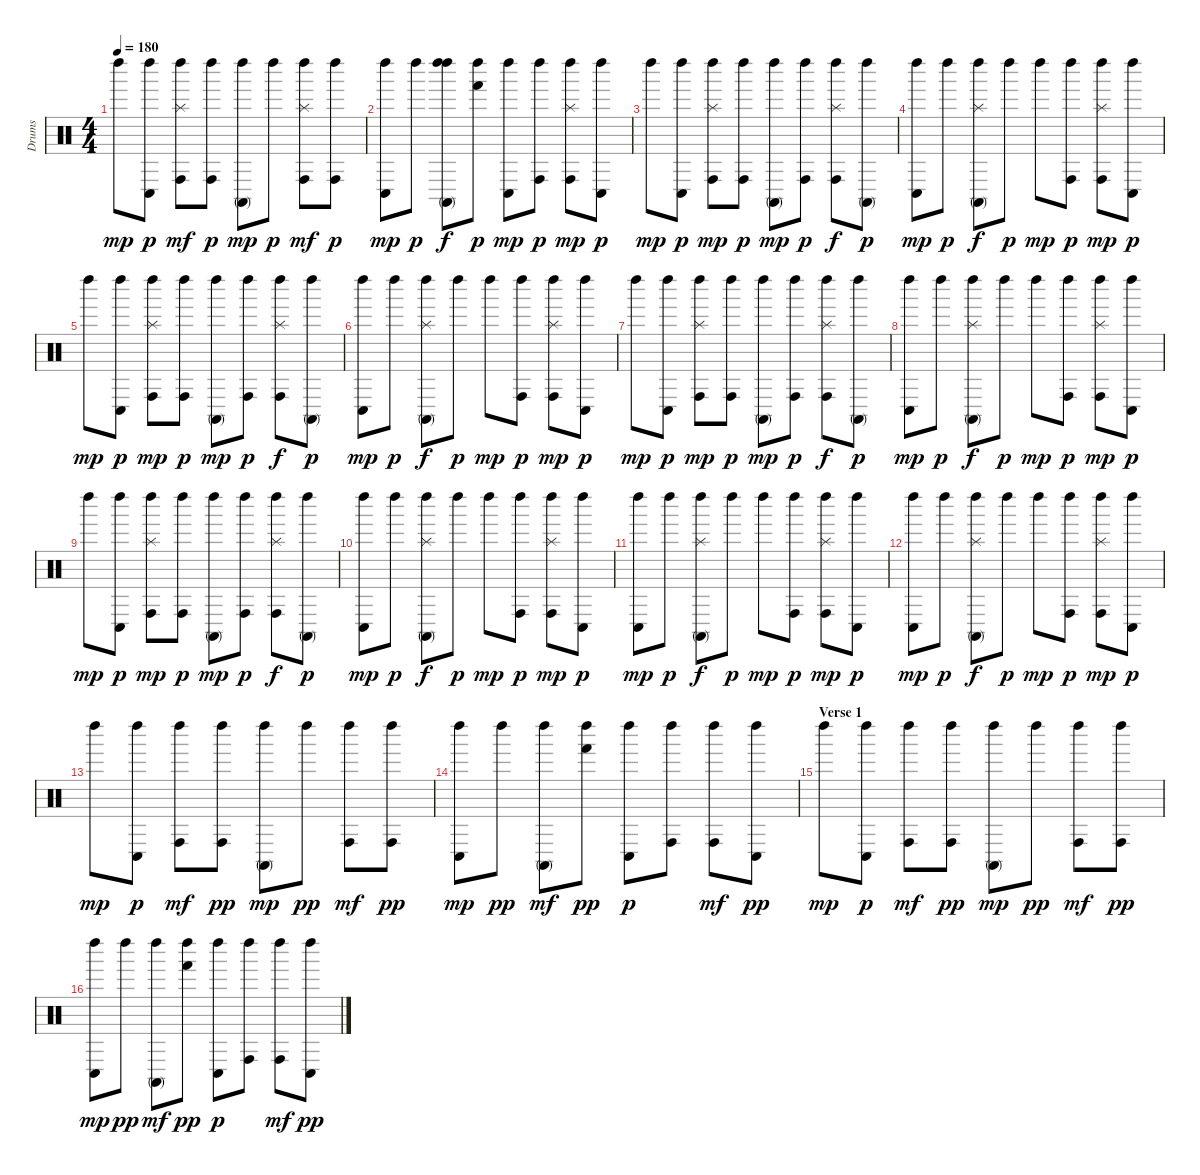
\track ("Drums" "Drums") {instrument percussion}
\staff {score}
\articulation defaults
\ts (4 4)
\tempo 180
\clef neutral
\ks c "Left Maraca (hit)".8{dy mp}
("Left Maraca (hit)" "Conga low (hit)").8{dy p} ("Left Maraca (hit)" "Conga high (hit)" "Splash (hit)").8{dy mf} ("Left Maraca (hit)" "Conga high (hit)").8{dy p} ("Left Maraca (hit)" "Conga high (mute)").8{dy mp} "Left Maraca (hit)".8{dy p} ("Left Maraca (hit)" "Conga high (hit)" "Splash (hit)").8{dy mf} ("Left Maraca (hit)" "Conga high (hit)").8{dy p} |
("Left Maraca (hit)" "Conga low (hit)").8{dy mp} "Left Maraca (hit)".8{dy p} ("Left Maraca (hit)" "Conga high (mute)" "Left Maraca (hit)").8{dy f} ("Left Maraca (hit)" "Hand (hit)").8{dy p} ("Left Maraca (hit)" "Conga low (hit)").8{dy mp} ("Left Maraca (hit)" "Conga high (hit)").8{dy p} ("Left Maraca (hit)" "Conga high (hit)" "Splash (hit)").8{dy mp} ("Left Maraca (hit)" "Conga low (hit)").8{dy p} |
"Left Maraca (hit)".8{dy mp} ("Left Maraca (hit)" "Conga low (hit)").8{dy p} ("Left Maraca (hit)" "Conga high (hit)" "Splash (hit)").8{dy mp} ("Left Maraca (hit)" "Conga high (hit)").8{dy p} ("Left Maraca (hit)" "Conga high (mute)").8{dy mp} ("Left Maraca (hit)" "Conga high (hit)").8{dy p} ("Left Maraca (hit)" "Conga high (hit)" "Splash (hit)").8{dy f} ("Left Maraca (hit)" "Conga high (mute)").8{dy p} |
("Left Maraca (hit)" "Conga low (hit)").8{dy mp} "Left Maraca (hit)".8{dy p} ("Left Maraca (hit)" "Conga high (mute)" "Splash (hit)").8{dy f} "Left Maraca (hit)".8{dy p} "Left Maraca (hit)".8{dy mp} ("Left Maraca (hit)" "Conga high (hit)").8{dy p} ("Left Maraca (hit)" "Conga high (hit)" "Splash (hit)").8{dy mp} ("Left Maraca (hit)" "Conga low (hit)").8{dy p} |
"Left Maraca (hit)".8{dy mp} ("Left Maraca (hit)" "Conga low (hit)").8{dy p} ("Left Maraca (hit)" "Conga high (hit)" "Splash (hit)").8{dy mp} ("Left Maraca (hit)" "Conga high (hit)").8{dy p} ("Left Maraca (hit)" "Conga high (mute)").8{dy mp} ("Left Maraca (hit)" "Conga high (hit)").8{dy p} ("Left Maraca (hit)" "Conga high (hit)" "Splash (hit)").8{dy f} ("Left Maraca (hit)" "Conga high (mute)").8{dy p} |
("Left Maraca (hit)" "Conga low (hit)").8{dy mp} "Left Maraca (hit)".8{dy p} ("Left Maraca (hit)" "Conga high (mute)" "Splash (hit)").8{dy f} "Left Maraca (hit)".8{dy p} "Left Maraca (hit)".8{dy mp} ("Left Maraca (hit)" "Conga high (hit)").8{dy p} ("Left Maraca (hit)" "Conga high (hit)" "Splash (hit)").8{dy mp} ("Left Maraca (hit)" "Conga low (hit)").8{dy p} |
"Left Maraca (hit)".8{dy mp} ("Left Maraca (hit)" "Conga low (hit)").8{dy p} ("Left Maraca (hit)" "Conga high (hit)" "Splash (hit)").8{dy mp} ("Left Maraca (hit)" "Conga high (hit)").8{dy p} ("Left Maraca (hit)" "Conga high (mute)").8{dy mp} ("Left Maraca (hit)" "Conga high (hit)").8{dy p} ("Left Maraca (hit)" "Conga high (hit)" "Splash (hit)").8{dy f} ("Left Maraca (hit)" "Conga high (mute)").8{dy p} |
("Left Maraca (hit)" "Conga low (hit)").8{dy mp} "Left Maraca (hit)".8{dy p} ("Left Maraca (hit)" "Conga high (mute)" "Splash (hit)").8{dy f} "Left Maraca (hit)".8{dy p} "Left Maraca (hit)".8{dy mp} ("Left Maraca (hit)" "Conga high (hit)").8{dy p} ("Left Maraca (hit)" "Conga high (hit)" "Splash (hit)").8{dy mp} ("Left Maraca (hit)" "Conga low (hit)").8{dy p} |
"Left Maraca (hit)".8{dy mp} ("Left Maraca (hit)" "Conga low (hit)").8{dy p} ("Left Maraca (hit)" "Conga high (hit)" "Splash (hit)").8{dy mp} ("Left Maraca (hit)" "Conga high (hit)").8{dy p} ("Left Maraca (hit)" "Conga high (mute)").8{dy mp} ("Left Maraca (hit)" "Conga high (hit)").8{dy p} ("Left Maraca (hit)" "Conga high (hit)" "Splash (hit)").8{dy f} ("Left Maraca (hit)" "Conga high (mute)").8{dy p} |
("Left Maraca (hit)" "Conga low (hit)").8{dy mp} "Left Maraca (hit)".8{dy p} ("Left Maraca (hit)" "Conga high (mute)" "Splash (hit)").8{dy f} "Left Maraca (hit)".8{dy p} "Left Maraca (hit)".8{dy mp} ("Left Maraca (hit)" "Conga high (hit)").8{dy p} ("Left Maraca (hit)" "Conga high (hit)" "Splash (hit)").8{dy mp} ("Left Maraca (hit)" "Conga low (hit)").8{dy p} |
("Left Maraca (hit)" "Conga low (hit)").8{dy mp} "Left Maraca (hit)".8{dy p} ("Left Maraca (hit)" "Conga high (mute)" "Splash (hit)").8{dy f} "Left Maraca (hit)".8{dy p} "Left Maraca (hit)".8{dy mp} ("Left Maraca (hit)" "Conga high (hit)").8{dy p} ("Left Maraca (hit)" "Conga high (hit)" "Splash (hit)").8{dy mp} ("Left Maraca (hit)" "Conga low (hit)").8{dy p} |
("Left Maraca (hit)" "Conga low (hit)").8{dy mp} "Left Maraca (hit)".8{dy p} ("Left Maraca (hit)" "Conga high (mute)" "Splash (hit)").8{dy f} "Left Maraca (hit)".8{dy p} "Left Maraca (hit)".8{dy mp} ("Left Maraca (hit)" "Conga high (hit)").8{dy p} ("Left Maraca (hit)" "Conga high (hit)" "Splash (hit)").8{dy mp} ("Left Maraca (hit)" "Conga low (hit)").8{dy p} |
"Left Maraca (hit)".8{dy mp} ("Left Maraca (hit)" "Conga low (hit)").8{dy p} ("Left Maraca (hit)" "Conga high (hit)").8{dy mf} ("Left Maraca (hit)" "Conga high (hit)").8{dy pp} ("Left Maraca (hit)" "Conga high (mute)").8{dy mp} "Left Maraca (hit)".8{dy pp} ("Left Maraca (hit)" "Conga high (hit)").8{dy mf} ("Left Maraca (hit)" "Conga high (hit)").8{dy pp} |
("Left Maraca (hit)" "Conga low (hit)").8{dy mp} "Left Maraca (hit)".8{dy pp} ("Left Maraca (hit)" "Conga high (mute)").8{dy mf} ("Left Maraca (hit)" "Hand (hit)").8{dy pp} ("Left Maraca (hit)" "Conga low (hit)").8{dy p} ("Left Maraca (hit)" "Conga high (hit)").8 ("Left Maraca (hit)" "Conga high (hit)").8{dy mf} ("Left Maraca (hit)" "Conga low (hit)").8{dy pp} |
\section ("" "Verse 1")
"Left Maraca (hit)".8{dy mp} ("Left Maraca (hit)" "Conga low (hit)").8{dy p} ("Left Maraca (hit)" "Conga high (hit)").8{dy mf} ("Left Maraca (hit)" "Conga high (hit)").8{dy pp} ("Left Maraca (hit)" "Conga high (mute)").8{dy mp} "Left Maraca (hit)".8{dy pp} ("Left Maraca (hit)" "Conga high (hit)").8{dy mf} ("Left Maraca (hit)" "Conga high (hit)").8{dy pp} |
("Left Maraca (hit)" "Conga low (hit)").8{dy mp} "Left Maraca (hit)".8{dy pp} ("Left Maraca (hit)" "Conga high (mute)").8{dy mf} ("Left Maraca (hit)" "Hand (hit)").8{dy pp} ("Left Maraca (hit)" "Conga low (hit)").8{dy p} ("Left Maraca (hit)" "Conga high (hit)").8 ("Left Maraca (hit)" "Conga high (hit)").8{dy mf} ("Left Maraca (hit)" "Conga low (hit)").8{dy pp}
